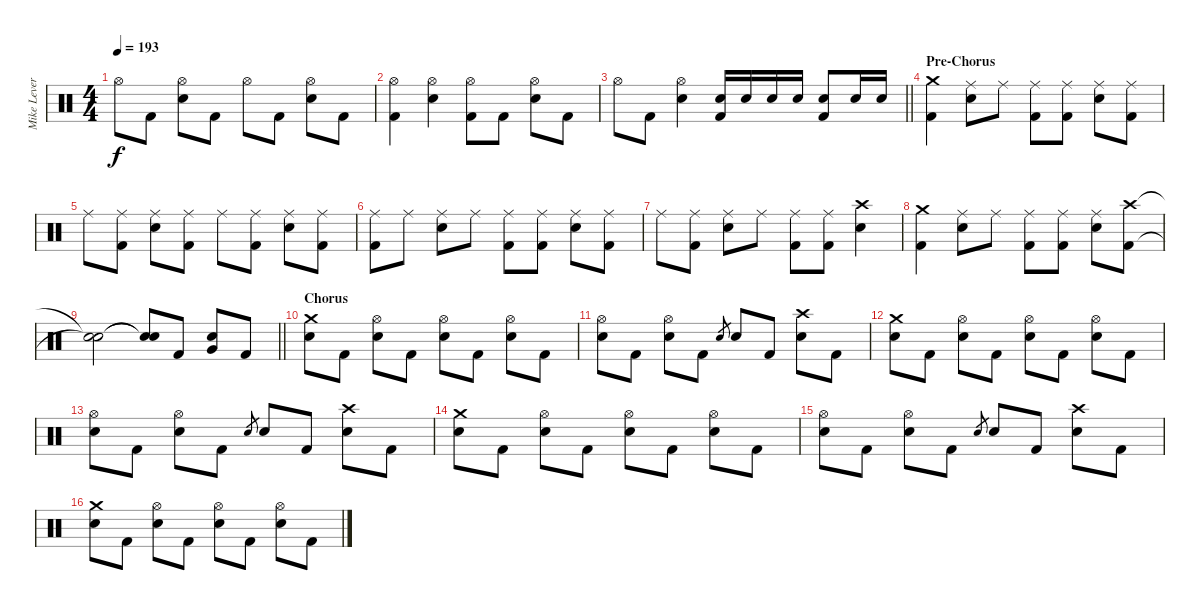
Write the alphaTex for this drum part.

\track ("Mike Leverence - Drums" "Mike Lever") {instrument percussion}
\staff {score}
\articulation defaults
\ts (4 4)
\tempo 193
\clef neutral
\ks c "Hi-Hat (open)".8{dy f} "Kick (hit) 2".8
("Hi-Hat (open)" "Electric Snare (hit)").8 "Kick (hit) 2".8 "Hi-Hat (open)".8 "Kick (hit) 2".8 ("Hi-Hat (open)" "Electric Snare (hit)").8 "Kick (hit) 2".8 |
("Hi-Hat (open)" "Kick (hit) 2").4 ("Hi-Hat (open)" "Electric Snare (hit)").4 ("Hi-Hat (open)" "Kick (hit) 2").8 "Kick (hit) 2".8 ("Hi-Hat (open)" "Electric Snare (hit)").8 "Kick (hit) 2".8 |
\barLineRight lightlight "Hi-Hat (open)".8 "Kick (hit) 2".8
("Hi-Hat (open)" "Electric Snare (hit)").4 ("Electric Snare (hit)" "Kick (hit) 2").16 "Electric Snare (hit)".16 "Electric Snare (hit)".16 "Electric Snare (hit)".16 ("Electric Snare (hit)" "Kick (hit) 2").8 "Electric Snare (hit)".16 "Electric Snare (hit)".16 |
\section ("" "Pre-Chorus")
("Crash medium (hit)" "Kick (hit) 2").4 ("Ride (middle)" "Electric Snare (hit)").8 "Ride (middle)".8 ("Ride (middle)" "Kick (hit) 2").8 ("Ride (middle)" "Kick (hit) 2").8 ("Ride (middle)" "Electric Snare (hit)").8 ("Ride (middle)" "Kick (hit) 2").8 |
"Ride (middle)".8 ("Ride (middle)" "Kick (hit) 2").8 ("Ride (middle)" "Electric Snare (hit)").8 ("Ride (middle)" "Kick (hit) 2").8 "Ride (middle)".8 ("Ride (middle)" "Kick (hit) 2").8 ("Ride (middle)" "Electric Snare (hit)").8 ("Ride (middle)" "Kick (hit) 2").8 |
("Ride (middle)" "Kick (hit) 2").8 "Ride (middle)".8 ("Ride (middle)" "Electric Snare (hit)").8 "Ride (middle)".8 ("Ride (middle)" "Kick (hit) 2").8 ("Ride (middle)" "Kick (hit) 2").8 ("Ride (middle)" "Electric Snare (hit)").8 ("Ride (middle)" "Kick (hit) 2").8 |
"Ride (middle)".8 ("Ride (middle)" "Kick (hit) 2").8 ("Ride (middle)" "Electric Snare (hit)").8 "Ride (middle)".8 ("Ride (middle)" "Kick (hit) 2").8 ("Ride (middle)" "Kick (hit) 2").8 ("Crash high (hit)" "Electric Snare (hit)").4 |
("Crash medium (hit)" "Kick (hit) 2").4 ("Ride (middle)" "Electric Snare (hit)").8 "Ride (middle)".8 ("Ride (middle)" "Kick (hit) 2").8 ("Ride (middle)" "Kick (hit) 2").8 ("Ride (middle)" "Electric Snare (hit)").8 ("Crash high (hit)" "Kick (hit) 2").8 |
\barLineRight lightlight
("Snare (hit)"{t} "Snare (hit)"{t}).2 ("Snare (hit)"{t} "Snare (hit)"{t}).8 "Kick (hit) 2".8 ("Very Low Tom (hit)" "Electric Snare (hit)").8 "Kick (hit) 2".8 |
\section ("" "Chorus")
("Crash medium (hit)" "Electric Snare (hit)").8 "Kick (hit) 2".8 ("Hi-Hat (open)" "Electric Snare (hit)").8 "Kick (hit) 2".8 ("Hi-Hat (open)" "Electric Snare (hit)").8 "Kick (hit) 2".8 ("Hi-Hat (open)" "Electric Snare (hit)").8 "Kick (hit) 2".8 |
("Hi-Hat (open)" "Electric Snare (hit)").8 "Kick (hit) 2".8 ("Hi-Hat (open)" "Electric Snare (hit)").8 "Kick (hit) 2".8 "Electric Snare (hit)".8{gr} "Electric Snare (hit)".8 "Kick (hit) 2".8 ("Crash high (hit)" "Electric Snare (hit)").8 "Kick (hit) 2".8 |
("Crash medium (hit)" "Electric Snare (hit)").8 "Kick (hit) 2".8 ("Hi-Hat (open)" "Electric Snare (hit)").8 "Kick (hit) 2".8 ("Hi-Hat (open)" "Electric Snare (hit)").8 "Kick (hit) 2".8 ("Hi-Hat (open)" "Electric Snare (hit)").8 "Kick (hit) 2".8 |
("Hi-Hat (open)" "Electric Snare (hit)").8 "Kick (hit) 2".8 ("Hi-Hat (open)" "Electric Snare (hit)").8 "Kick (hit) 2".8 "Electric Snare (hit)".8{gr} "Electric Snare (hit)".8 "Kick (hit) 2".8 ("Crash high (hit)" "Electric Snare (hit)").8 "Kick (hit) 2".8 |
("Crash medium (hit)" "Electric Snare (hit)").8 "Kick (hit) 2".8 ("Hi-Hat (open)" "Electric Snare (hit)").8 "Kick (hit) 2".8 ("Hi-Hat (open)" "Electric Snare (hit)").8 "Kick (hit) 2".8 ("Hi-Hat (open)" "Electric Snare (hit)").8 "Kick (hit) 2".8 |
("Hi-Hat (open)" "Electric Snare (hit)").8 "Kick (hit) 2".8 ("Hi-Hat (open)" "Electric Snare (hit)").8 "Kick (hit) 2".8 "Electric Snare (hit)".8{gr} "Electric Snare (hit)".8 "Kick (hit) 2".8 ("Crash high (hit)" "Electric Snare (hit)").8 "Kick (hit) 2".8 |
("Crash medium (hit)" "Electric Snare (hit)").8 "Kick (hit) 2".8 ("Hi-Hat (open)" "Electric Snare (hit)").8 "Kick (hit) 2".8 ("Hi-Hat (open)" "Electric Snare (hit)").8 "Kick (hit) 2".8 ("Hi-Hat (open)" "Electric Snare (hit)").8 "Kick (hit) 2".8
